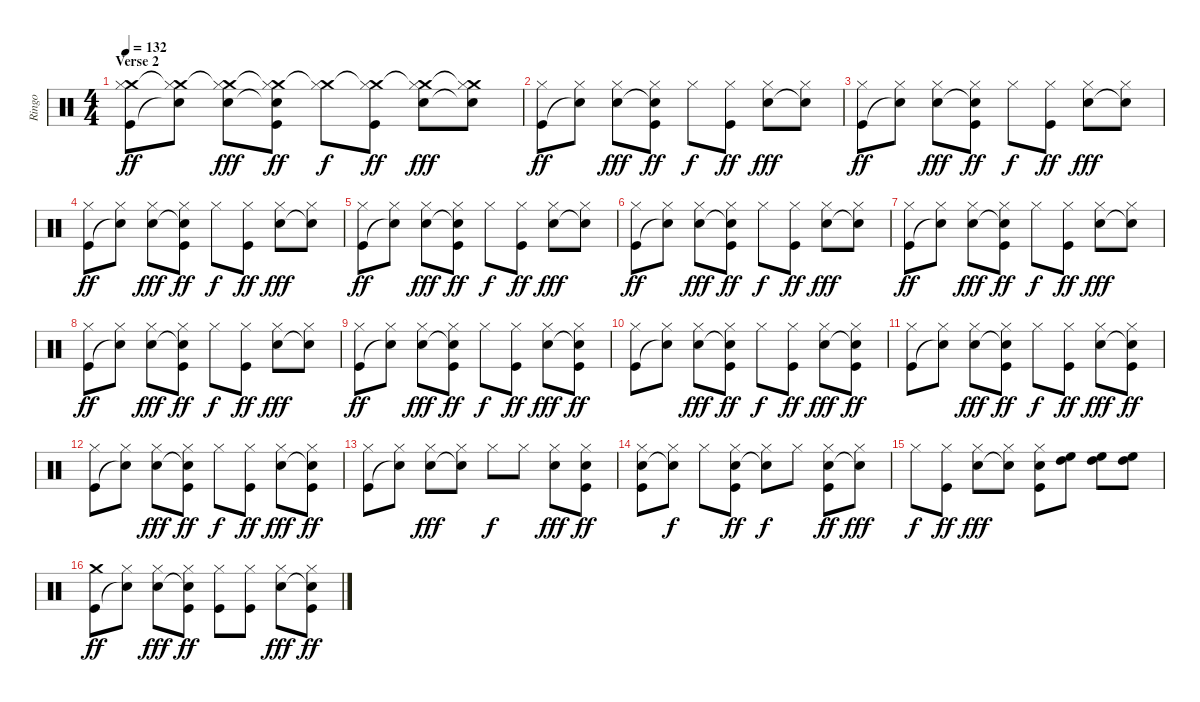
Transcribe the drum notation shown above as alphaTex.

\track ("Ringo" "Ringo") {instrument percussion}
\staff {score}
\articulation defaults
\ts (4 4)
\section ("" "Verse 2")
\tempo 132
\clef neutral
\ks c
("Crash medium (hit)" "Hi-Hat (closed)" "Kick (hit)").8{dy ff} ("Crash medium (hit)"{t} "Hi-Hat (closed)" "Snare (hit)"{t}).8 ("Crash medium (hit)"{t} "Hi-Hat (closed)" "Snare (hit) 2").8{dy fff} ("Crash medium (hit)"{t} "Hi-Hat (closed)" "Snare (hit)"{t} "Kick (hit)").8{dy ff} ("Crash medium (hit)"{t} "Hi-Hat (closed)").8{dy f} ("Crash medium (hit)"{t} "Hi-Hat (closed)" "Kick (hit)").8{dy ff} ("Crash medium (hit)"{t} "Hi-Hat (closed)" "Snare (hit) 2").8{dy fff} ("Crash medium (hit)"{t} "Hi-Hat (closed)" "Snare (hit)"{t}).8 |
("Hi-Hat (closed)" "Kick (hit)").8{dy ff} ("Hi-Hat (closed)" "Snare (hit)"{t}).8 ("Hi-Hat (closed)" "Snare (hit) 2").8{dy fff} ("Hi-Hat (closed)" "Snare (hit)"{t} "Kick (hit)").8{dy ff} "Hi-Hat (closed)".8{dy f} ("Hi-Hat (closed)" "Kick (hit)").8{dy ff} ("Hi-Hat (closed)" "Snare (hit) 2").8{dy fff} ("Hi-Hat (closed)" "Snare (hit)"{t}).8 |
("Hi-Hat (closed)" "Kick (hit)").8{dy ff} ("Hi-Hat (closed)" "Snare (hit)"{t}).8 ("Hi-Hat (closed)" "Snare (hit) 2").8{dy fff} ("Hi-Hat (closed)" "Snare (hit)"{t} "Kick (hit)").8{dy ff} "Hi-Hat (closed)".8{dy f} ("Hi-Hat (closed)" "Kick (hit)").8{dy ff} ("Hi-Hat (closed)" "Snare (hit) 2").8{dy fff} ("Hi-Hat (closed)" "Snare (hit)"{t}).8 |
("Hi-Hat (closed)" "Kick (hit)").8{dy ff} ("Hi-Hat (closed)" "Snare (hit)"{t}).8 ("Hi-Hat (closed)" "Snare (hit) 2").8{dy fff} ("Hi-Hat (closed)" "Snare (hit)"{t} "Kick (hit)").8{dy ff} "Hi-Hat (closed)".8{dy f} ("Hi-Hat (closed)" "Kick (hit)").8{dy ff} ("Hi-Hat (closed)" "Snare (hit) 2").8{dy fff} ("Hi-Hat (closed)" "Snare (hit)"{t}).8 |
("Hi-Hat (closed)" "Kick (hit)").8{dy ff} ("Hi-Hat (closed)" "Snare (hit)"{t}).8 ("Hi-Hat (closed)" "Snare (hit) 2").8{dy fff} ("Hi-Hat (closed)" "Snare (hit)"{t} "Kick (hit)").8{dy ff} "Hi-Hat (closed)".8{dy f} ("Hi-Hat (closed)" "Kick (hit)").8{dy ff} ("Hi-Hat (closed)" "Snare (hit) 2").8{dy fff} ("Hi-Hat (closed)" "Snare (hit)"{t}).8 |
("Hi-Hat (closed)" "Kick (hit)").8{dy ff} ("Hi-Hat (closed)" "Snare (hit)"{t}).8 ("Hi-Hat (closed)" "Snare (hit) 2").8{dy fff} ("Hi-Hat (closed)" "Snare (hit)"{t} "Kick (hit)").8{dy ff} "Hi-Hat (closed)".8{dy f} ("Hi-Hat (closed)" "Kick (hit)").8{dy ff} ("Hi-Hat (closed)" "Snare (hit) 2").8{dy fff} ("Hi-Hat (closed)" "Snare (hit)"{t}).8 |
("Hi-Hat (closed)" "Kick (hit)").8{dy ff} ("Hi-Hat (closed)" "Snare (hit)"{t}).8 ("Hi-Hat (closed)" "Snare (hit) 2").8{dy fff} ("Hi-Hat (closed)" "Snare (hit)"{t} "Kick (hit)").8{dy ff} "Hi-Hat (closed)".8{dy f} ("Hi-Hat (closed)" "Kick (hit)").8{dy ff} ("Hi-Hat (closed)" "Snare (hit) 2").8{dy fff} ("Hi-Hat (closed)" "Snare (hit)"{t}).8 |
("Hi-Hat (closed)" "Kick (hit)").8{dy ff} ("Hi-Hat (closed)" "Snare (hit)"{t}).8 ("Hi-Hat (closed)" "Snare (hit) 2").8{dy fff} ("Hi-Hat (closed)" "Snare (hit)"{t} "Kick (hit)").8{dy ff} "Hi-Hat (closed)".8{dy f} ("Hi-Hat (closed)" "Kick (hit)").8{dy ff} ("Hi-Hat (closed)" "Snare (hit) 2").8{dy fff} ("Hi-Hat (closed)" "Snare (hit)"{t}).8 |
("Hi-Hat (closed)" "Kick (hit)").8{dy ff} ("Hi-Hat (closed)" "Snare (hit)"{t}).8 ("Hi-Hat (closed)" "Snare (hit) 2").8{dy fff} ("Hi-Hat (closed)" "Snare (hit)"{t} "Kick (hit)").8{dy ff} "Hi-Hat (closed)".8{dy f} ("Hi-Hat (closed)" "Kick (hit)").8{dy ff} ("Hi-Hat (closed)" "Snare (hit) 2").8{dy fff} ("Hi-Hat (closed)" "Snare (hit)"{t} "Kick (hit)").8{dy ff} |
("Hi-Hat (closed)" "Kick (hit)").8 ("Hi-Hat (closed)" "Snare (hit)"{t}).8 ("Hi-Hat (closed)" "Electric Snare (hit)").8{dy fff} ("Hi-Hat (closed)" "Snare (hit)"{t} "Kick (hit)").8{dy ff} "Hi-Hat (closed)".8{dy f} ("Hi-Hat (closed)" "Kick (hit)").8{dy ff} ("Hi-Hat (closed)" "Electric Snare (hit)").8{dy fff} ("Hi-Hat (closed)" "Snare (hit)"{t} "Kick (hit)").8{dy ff} |
("Hi-Hat (closed)" "Kick (hit)").8 ("Hi-Hat (closed)" "Snare (hit)"{t}).8 ("Hi-Hat (closed)" "Electric Snare (hit)").8{dy fff} ("Hi-Hat (closed)" "Snare (hit)"{t} "Kick (hit)").8{dy ff} "Hi-Hat (closed)".8{dy f} ("Hi-Hat (closed)" "Kick (hit)").8{dy ff} ("Hi-Hat (closed)" "Electric Snare (hit)").8{dy fff} ("Hi-Hat (closed)" "Snare (hit)"{t} "Kick (hit)").8{dy ff} |
("Hi-Hat (closed)" "Kick (hit)").8 ("Hi-Hat (closed)" "Snare (hit)"{t}).8 ("Hi-Hat (closed)" "Electric Snare (hit)").8{dy fff} ("Hi-Hat (closed)" "Snare (hit)"{t} "Kick (hit)").8{dy ff} "Hi-Hat (closed)".8{dy f} ("Hi-Hat (closed)" "Kick (hit)").8{dy ff} ("Hi-Hat (closed)" "Electric Snare (hit)").8{dy fff} ("Hi-Hat (closed)" "Snare (hit)"{t} "Kick (hit)").8{dy ff} |
("Hi-Hat (closed)" "Kick (hit)").8 ("Hi-Hat (closed)" "Snare (hit)"{t}).8 ("Hi-Hat (closed)" "Electric Snare (hit)").8{dy fff} ("Hi-Hat (closed)" "Snare (hit)"{t}).8 "Hi-Hat (closed)".8{dy f} "Hi-Hat (closed)".8 ("Hi-Hat (closed)" "Electric Snare (hit)").8{dy fff} ("Hi-Hat (closed)" "Electric Snare (hit)" "Kick (hit)").8{dy ff} |
("Hi-Hat (closed)" "Electric Snare (hit)" "Kick (hit)").8 ("Hi-Hat (closed)" "Snare (hit)"{t}).8{dy f} "Hi-Hat (closed)".8 ("Hi-Hat (closed)" "Electric Snare (hit)" "Kick (hit)").8{dy ff} ("Hi-Hat (closed)" "Snare (hit)"{t}).8{dy f} "Hi-Hat (closed)".8 ("Hi-Hat (closed)" "Electric Snare (hit)" "Kick (hit)").8{dy ff} ("Hi-Hat (closed)" "Snare (hit)"{t}).8{dy fff} |
"Hi-Hat (closed)".8{dy f} ("Hi-Hat (closed)" "Kick (hit)").8{dy ff} ("Hi-Hat (closed)" "Electric Snare (hit)").8{dy fff} ("Hi-Hat (closed)" "Snare (hit)"{t}).8 ("Hi-Hat (closed)" "Electric Snare (hit)" "Kick (hit)").8 ("High Tom (hit)" "High Floor Tom (hit)").8 ("High Tom (hit)" "High Floor Tom (hit)").8 ("High Tom (hit)" "High Floor Tom (hit)").8 |
("Crash medium (hit)" "Kick (hit)").8{dy ff} ("Hi-Hat (closed)" "Snare (hit)"{t}).8 ("Hi-Hat (closed)" "Electric Snare (hit)").8{dy fff} ("Hi-Hat (closed)" "Snare (hit)"{t} "Kick (hit)").8{dy ff} ("Hi-Hat (closed)" "Kick (hit)").8 ("Hi-Hat (closed)" "Kick (hit)").8 ("Hi-Hat (closed)" "Electric Snare (hit)").8{dy fff} ("Hi-Hat (closed)" "Snare (hit)"{t} "Kick (hit)").8{dy ff}
